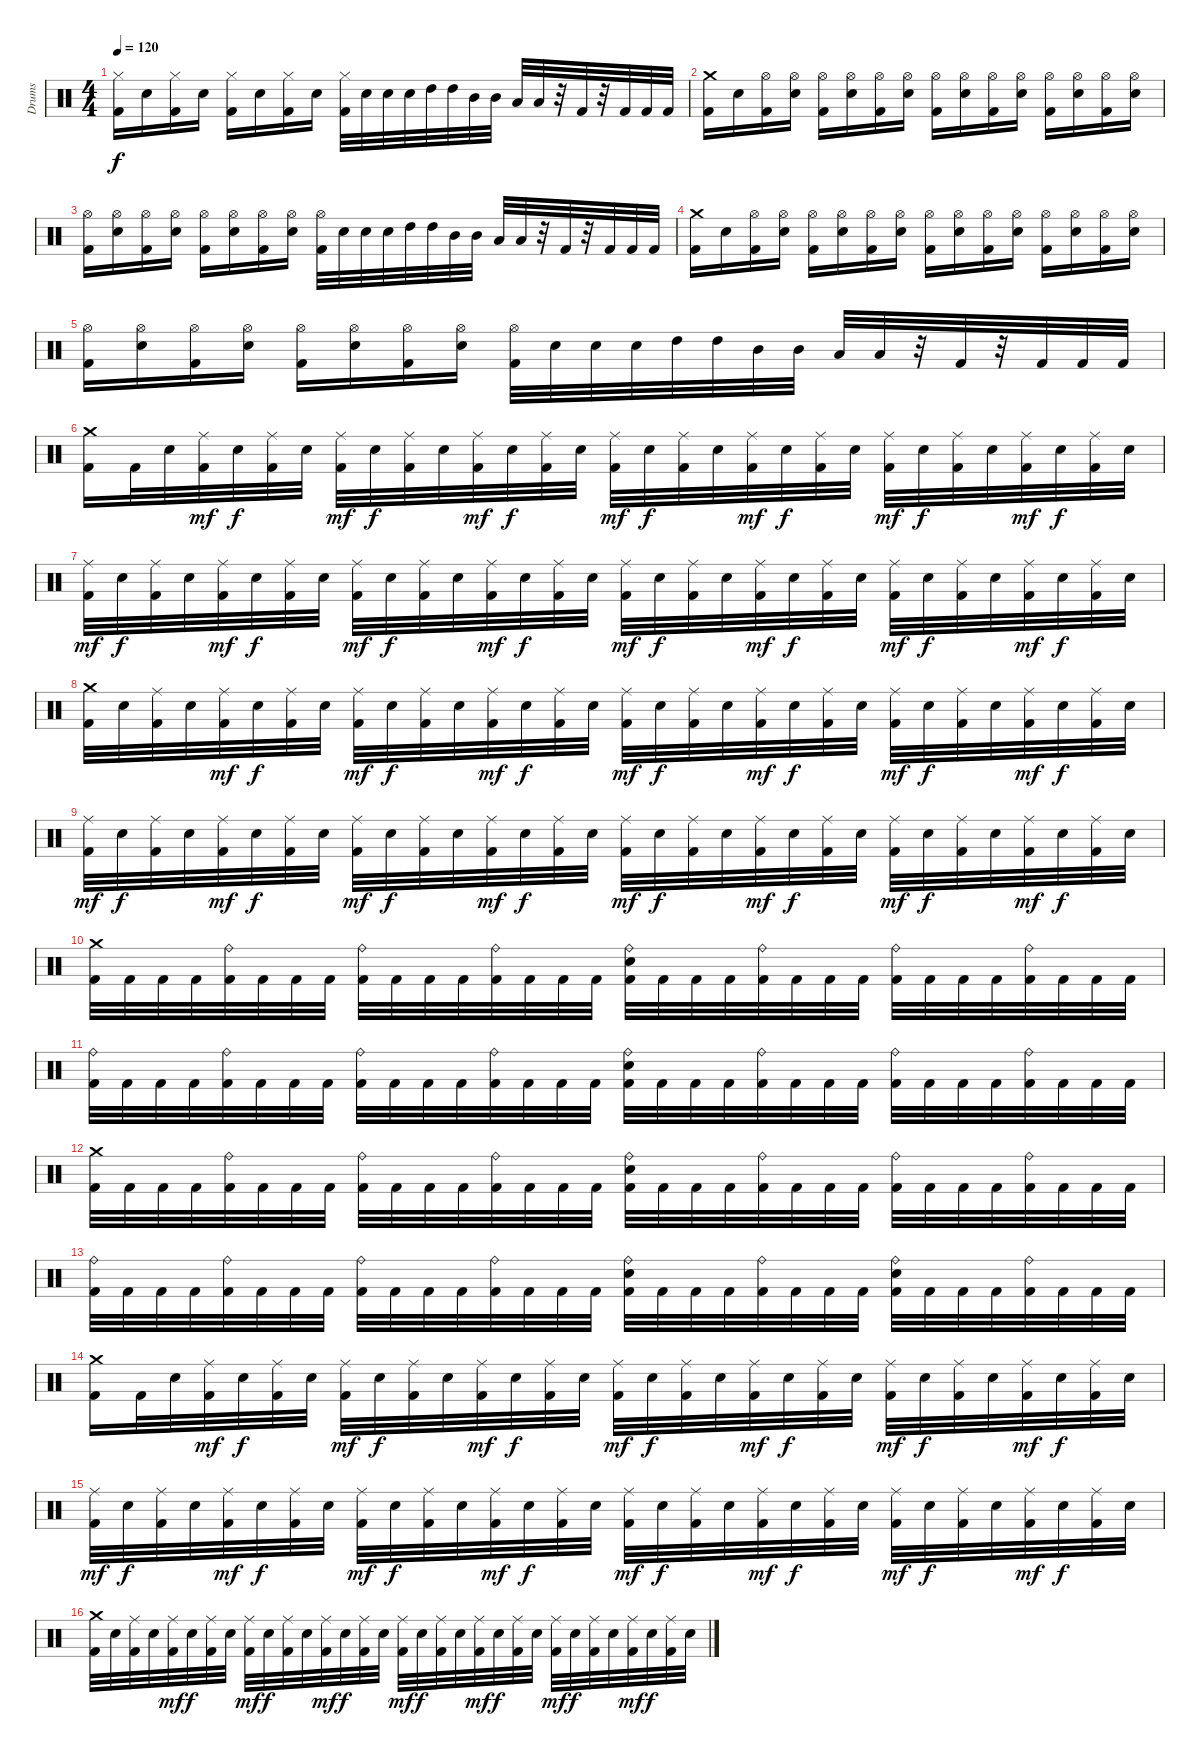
\track ("Drums" "Drums") {instrument percussion}
\staff {score}
\articulation defaults
\ts (4 4)
\tempo 120
\clef neutral
\ks c
("Hi-Hat (closed)" "Kick (hit) 2").16{dy f} "Electric Snare (hit)".16 ("Hi-Hat (closed)" "Kick (hit) 2").16 "Electric Snare (hit)".16 ("Hi-Hat (closed)" "Kick (hit) 2").16 "Electric Snare (hit)".16 ("Hi-Hat (closed)" "Kick (hit) 2").16 "Electric Snare (hit)".16 ("Hi-Hat (closed)" "Kick (hit) 2").32 "Electric Snare (hit)".32 "Electric Snare (hit)".32 "Electric Snare (hit)".32 "High Tom (hit)".32 "High Tom (hit)".32 "Mid Tom (hit)".32 "Mid Tom (hit)".32 "Low Tom (hit)".32 "Low Tom (hit)".32 r.32 "Kick (hit) 2".32 r.32 "Kick (hit) 2".32 "Kick (hit) 2".32 "Kick (hit) 2".32 |
("Crash medium (hit)" "Kick (hit) 2").16 "Electric Snare (hit)".16 ("Hi-Hat (open)" "Kick (hit) 2").16 ("Hi-Hat (open)" "Electric Snare (hit)").16 ("Hi-Hat (open)" "Kick (hit) 2").16 ("Hi-Hat (open)" "Electric Snare (hit)").16 ("Hi-Hat (open)" "Kick (hit) 2").16 ("Hi-Hat (open)" "Electric Snare (hit)").16 ("Hi-Hat (open)" "Kick (hit) 2").16 ("Hi-Hat (open)" "Electric Snare (hit)").16 ("Hi-Hat (open)" "Kick (hit) 2").16 ("Hi-Hat (open)" "Electric Snare (hit)").16 ("Hi-Hat (open)" "Kick (hit) 2").16 ("Hi-Hat (open)" "Electric Snare (hit)").16 ("Hi-Hat (open)" "Kick (hit) 2").16 ("Hi-Hat (open)" "Electric Snare (hit)").16 |
("Hi-Hat (open)" "Kick (hit) 2").16 ("Hi-Hat (open)" "Electric Snare (hit)").16 ("Hi-Hat (open)" "Kick (hit) 2").16 ("Hi-Hat (open)" "Electric Snare (hit)").16 ("Hi-Hat (open)" "Kick (hit) 2").16 ("Hi-Hat (open)" "Electric Snare (hit)").16 ("Hi-Hat (open)" "Kick (hit) 2").16 ("Hi-Hat (open)" "Electric Snare (hit)").16 ("Hi-Hat (open)" "Kick (hit) 2").32 "Electric Snare (hit)".32 "Electric Snare (hit)".32 "Electric Snare (hit)".32 "High Tom (hit)".32 "High Tom (hit)".32 "Mid Tom (hit)".32 "Mid Tom (hit)".32 "Low Tom (hit)".32 "Low Tom (hit)".32 r.32 "Kick (hit) 2".32 r.32 "Kick (hit) 2".32 "Kick (hit) 2".32 "Kick (hit) 2".32 |
("Crash medium (hit)" "Kick (hit) 2").16 "Electric Snare (hit)".16 ("Hi-Hat (open)" "Kick (hit) 2").16 ("Hi-Hat (open)" "Electric Snare (hit)").16 ("Hi-Hat (open)" "Kick (hit) 2").16 ("Hi-Hat (open)" "Electric Snare (hit)").16 ("Hi-Hat (open)" "Kick (hit) 2").16 ("Hi-Hat (open)" "Electric Snare (hit)").16 ("Hi-Hat (open)" "Kick (hit) 2").16 ("Hi-Hat (open)" "Electric Snare (hit)").16 ("Hi-Hat (open)" "Kick (hit) 2").16 ("Hi-Hat (open)" "Electric Snare (hit)").16 ("Hi-Hat (open)" "Kick (hit) 2").16 ("Hi-Hat (open)" "Electric Snare (hit)").16 ("Hi-Hat (open)" "Kick (hit) 2").16 ("Hi-Hat (open)" "Electric Snare (hit)").16 |
("Hi-Hat (open)" "Kick (hit) 2").16 ("Hi-Hat (open)" "Electric Snare (hit)").16 ("Hi-Hat (open)" "Kick (hit) 2").16 ("Hi-Hat (open)" "Electric Snare (hit)").16 ("Hi-Hat (open)" "Kick (hit) 2").16 ("Hi-Hat (open)" "Electric Snare (hit)").16 ("Hi-Hat (open)" "Kick (hit) 2").16 ("Hi-Hat (open)" "Electric Snare (hit)").16 ("Hi-Hat (open)" "Kick (hit) 2").32 "Electric Snare (hit)".32 "Electric Snare (hit)".32 "Electric Snare (hit)".32 "High Tom (hit)".32 "High Tom (hit)".32 "Mid Tom (hit)".32 "Mid Tom (hit)".32 "Low Tom (hit)".32 "Low Tom (hit)".32 r.32 "Kick (hit) 2".32 r.32 "Kick (hit) 2".32 "Kick (hit) 2".32 "Kick (hit) 2".32 |
("Kick (hit) 2" "Crash medium (hit)").16 "Kick (hit) 2".32 "Electric Snare (hit)".32 ("Kick (hit) 2" "Ride (middle)").32{dy mf} "Electric Snare (hit)".32{dy f} ("Kick (hit) 2" "Ride (middle)").32 "Electric Snare (hit)".32 ("Kick (hit) 2" "Ride (middle)").32{dy mf} "Electric Snare (hit)".32{dy f} ("Kick (hit) 2" "Ride (middle)").32 "Electric Snare (hit)".32 ("Kick (hit) 2" "Ride (middle)").32{dy mf} "Electric Snare (hit)".32{dy f} ("Kick (hit) 2" "Ride (middle)").32 "Electric Snare (hit)".32 ("Kick (hit) 2" "Ride (middle)").32{dy mf} "Electric Snare (hit)".32{dy f} ("Kick (hit) 2" "Ride (middle)").32 "Electric Snare (hit)".32 ("Kick (hit) 2" "Ride (middle)").32{dy mf} "Electric Snare (hit)".32{dy f} ("Kick (hit) 2" "Ride (middle)").32 "Electric Snare (hit)".32 ("Kick (hit) 2" "Ride (middle)").32{dy mf} "Electric Snare (hit)".32{dy f} ("Kick (hit) 2" "Ride (middle)").32 "Electric Snare (hit)".32 ("Kick (hit) 2" "Ride (middle)").32{dy mf} "Electric Snare (hit)".32{dy f} ("Kick (hit) 2" "Ride (middle)").32 "Electric Snare (hit)".32 |
("Kick (hit) 2" "Ride (middle)").32{dy mf} "Electric Snare (hit)".32{dy f} ("Kick (hit) 2" "Ride (middle)").32 "Electric Snare (hit)".32 ("Kick (hit) 2" "Ride (middle)").32{dy mf} "Electric Snare (hit)".32{dy f} ("Kick (hit) 2" "Ride (middle)").32 "Electric Snare (hit)".32 ("Kick (hit) 2" "Ride (middle)").32{dy mf} "Electric Snare (hit)".32{dy f} ("Kick (hit) 2" "Ride (middle)").32 "Electric Snare (hit)".32 ("Kick (hit) 2" "Ride (middle)").32{dy mf} "Electric Snare (hit)".32{dy f} ("Kick (hit) 2" "Ride (middle)").32 "Electric Snare (hit)".32 ("Kick (hit) 2" "Ride (middle)").32{dy mf} "Electric Snare (hit)".32{dy f} ("Kick (hit) 2" "Ride (middle)").32 "Electric Snare (hit)".32 ("Kick (hit) 2" "Ride (middle)").32{dy mf} "Electric Snare (hit)".32{dy f} ("Kick (hit) 2" "Ride (middle)").32 "Electric Snare (hit)".32 ("Kick (hit) 2" "Ride (middle)").32{dy mf} "Electric Snare (hit)".32{dy f} ("Kick (hit) 2" "Ride (middle)").32 "Electric Snare (hit)".32 ("Kick (hit) 2" "Ride (middle)").32{dy mf} "Electric Snare (hit)".32{dy f} ("Kick (hit) 2" "Ride (middle)").32 "Electric Snare (hit)".32 |
("Kick (hit) 2" "Crash medium (hit)").32 "Electric Snare (hit)".32 ("Kick (hit) 2" "Ride (middle)").32 "Electric Snare (hit)".32 ("Kick (hit) 2" "Ride (middle)").32{dy mf} "Electric Snare (hit)".32{dy f} ("Kick (hit) 2" "Ride (middle)").32 "Electric Snare (hit)".32 ("Kick (hit) 2" "Ride (middle)").32{dy mf} "Electric Snare (hit)".32{dy f} ("Kick (hit) 2" "Ride (middle)").32 "Electric Snare (hit)".32 ("Kick (hit) 2" "Ride (middle)").32{dy mf} "Electric Snare (hit)".32{dy f} ("Kick (hit) 2" "Ride (middle)").32 "Electric Snare (hit)".32 ("Kick (hit) 2" "Ride (middle)").32{dy mf} "Electric Snare (hit)".32{dy f} ("Kick (hit) 2" "Ride (middle)").32 "Electric Snare (hit)".32 ("Kick (hit) 2" "Ride (middle)").32{dy mf} "Electric Snare (hit)".32{dy f} ("Kick (hit) 2" "Ride (middle)").32 "Electric Snare (hit)".32 ("Kick (hit) 2" "Ride (middle)").32{dy mf} "Electric Snare (hit)".32{dy f} ("Kick (hit) 2" "Ride (middle)").32 "Electric Snare (hit)".32 ("Kick (hit) 2" "Ride (middle)").32{dy mf} "Electric Snare (hit)".32{dy f} ("Kick (hit) 2" "Ride (middle)").32 "Electric Snare (hit)".32 |
("Kick (hit) 2" "Ride (middle)").32{dy mf} "Electric Snare (hit)".32{dy f} ("Kick (hit) 2" "Ride (middle)").32 "Electric Snare (hit)".32 ("Kick (hit) 2" "Ride (middle)").32{dy mf} "Electric Snare (hit)".32{dy f} ("Kick (hit) 2" "Ride (middle)").32 "Electric Snare (hit)".32 ("Kick (hit) 2" "Ride (middle)").32{dy mf} "Electric Snare (hit)".32{dy f} ("Kick (hit) 2" "Ride (middle)").32 "Electric Snare (hit)".32 ("Kick (hit) 2" "Ride (middle)").32{dy mf} "Electric Snare (hit)".32{dy f} ("Kick (hit) 2" "Ride (middle)").32 "Electric Snare (hit)".32 ("Kick (hit) 2" "Ride (middle)").32{dy mf} "Electric Snare (hit)".32{dy f} ("Kick (hit) 2" "Ride (middle)").32 "Electric Snare (hit)".32 ("Kick (hit) 2" "Ride (middle)").32{dy mf} "Electric Snare (hit)".32{dy f} ("Kick (hit) 2" "Ride (middle)").32 "Electric Snare (hit)".32 ("Kick (hit) 2" "Ride (middle)").32{dy mf} "Electric Snare (hit)".32{dy f} ("Kick (hit) 2" "Ride (middle)").32 "Electric Snare (hit)".32 ("Kick (hit) 2" "Ride (middle)").32{dy mf} "Electric Snare (hit)".32{dy f} ("Kick (hit) 2" "Ride (middle)").32 "Electric Snare (hit)".32 |
("Crash medium (hit)" "Kick (hit) 2").32 "Kick (hit) 2".32 "Kick (hit) 2".32 "Kick (hit) 2".32 ("Ride (bell)" "Kick (hit) 2").32 "Kick (hit) 2".32 "Kick (hit) 2".32 "Kick (hit) 2".32 ("Ride (bell)" "Kick (hit) 2").32 "Kick (hit) 2".32 "Kick (hit) 2".32 "Kick (hit) 2".32 ("Ride (bell)" "Kick (hit) 2").32 "Kick (hit) 2".32 "Kick (hit) 2".32 "Kick (hit) 2".32 ("Ride (bell)" "Electric Snare (hit)" "Kick (hit) 2").32 "Kick (hit) 2".32 "Kick (hit) 2".32 "Kick (hit) 2".32 ("Ride (bell)" "Kick (hit) 2").32 "Kick (hit) 2".32 "Kick (hit) 2".32 "Kick (hit) 2".32 ("Ride (bell)" "Kick (hit) 2").32 "Kick (hit) 2".32 "Kick (hit) 2".32 "Kick (hit) 2".32 ("Ride (bell)" "Kick (hit) 2").32 "Kick (hit) 2".32 "Kick (hit) 2".32 "Kick (hit) 2".32 |
("Ride (bell)" "Kick (hit) 2").32 "Kick (hit) 2".32 "Kick (hit) 2".32 "Kick (hit) 2".32 ("Ride (bell)" "Kick (hit) 2").32 "Kick (hit) 2".32 "Kick (hit) 2".32 "Kick (hit) 2".32 ("Ride (bell)" "Kick (hit) 2").32 "Kick (hit) 2".32 "Kick (hit) 2".32 "Kick (hit) 2".32 ("Ride (bell)" "Kick (hit) 2").32 "Kick (hit) 2".32 "Kick (hit) 2".32 "Kick (hit) 2".32 ("Ride (bell)" "Electric Snare (hit)" "Kick (hit) 2").32 "Kick (hit) 2".32 "Kick (hit) 2".32 "Kick (hit) 2".32 ("Ride (bell)" "Kick (hit) 2").32 "Kick (hit) 2".32 "Kick (hit) 2".32 "Kick (hit) 2".32 ("Ride (bell)" "Kick (hit) 2").32 "Kick (hit) 2".32 "Kick (hit) 2".32 "Kick (hit) 2".32 ("Ride (bell)" "Kick (hit) 2").32 "Kick (hit) 2".32 "Kick (hit) 2".32 "Kick (hit) 2".32 |
("Crash medium (hit)" "Kick (hit) 2").32 "Kick (hit) 2".32 "Kick (hit) 2".32 "Kick (hit) 2".32 ("Ride (bell)" "Kick (hit) 2").32 "Kick (hit) 2".32 "Kick (hit) 2".32 "Kick (hit) 2".32 ("Ride (bell)" "Kick (hit) 2").32 "Kick (hit) 2".32 "Kick (hit) 2".32 "Kick (hit) 2".32 ("Ride (bell)" "Kick (hit) 2").32 "Kick (hit) 2".32 "Kick (hit) 2".32 "Kick (hit) 2".32 ("Ride (bell)" "Electric Snare (hit)" "Kick (hit) 2").32 "Kick (hit) 2".32 "Kick (hit) 2".32 "Kick (hit) 2".32 ("Ride (bell)" "Kick (hit) 2").32 "Kick (hit) 2".32 "Kick (hit) 2".32 "Kick (hit) 2".32 ("Ride (bell)" "Kick (hit) 2").32 "Kick (hit) 2".32 "Kick (hit) 2".32 "Kick (hit) 2".32 ("Ride (bell)" "Kick (hit) 2").32 "Kick (hit) 2".32 "Kick (hit) 2".32 "Kick (hit) 2".32 |
("Ride (bell)" "Kick (hit) 2").32 "Kick (hit) 2".32 "Kick (hit) 2".32 "Kick (hit) 2".32 ("Ride (bell)" "Kick (hit) 2").32 "Kick (hit) 2".32 "Kick (hit) 2".32 "Kick (hit) 2".32 ("Ride (bell)" "Kick (hit) 2").32 "Kick (hit) 2".32 "Kick (hit) 2".32 "Kick (hit) 2".32 ("Ride (bell)" "Kick (hit) 2").32 "Kick (hit) 2".32 "Kick (hit) 2".32 "Kick (hit) 2".32 ("Ride (bell)" "Electric Snare (hit)" "Kick (hit) 2").32 "Kick (hit) 2".32 "Kick (hit) 2".32 "Kick (hit) 2".32 ("Ride (bell)" "Kick (hit) 2").32 "Kick (hit) 2".32 "Kick (hit) 2".32 "Kick (hit) 2".32 ("Ride (bell)" "Electric Snare (hit)" "Kick (hit) 2").32 "Kick (hit) 2".32 "Kick (hit) 2".32 "Kick (hit) 2".32 ("Ride (bell)" "Kick (hit) 2").32 "Kick (hit) 2".32 "Kick (hit) 2".32 "Kick (hit) 2".32 |
("Kick (hit) 2" "Crash medium (hit)").16 "Kick (hit) 2".32 "Electric Snare (hit)".32 ("Kick (hit) 2" "Ride (middle)").32{dy mf} "Electric Snare (hit)".32{dy f} ("Kick (hit) 2" "Ride (middle)").32 "Electric Snare (hit)".32 ("Kick (hit) 2" "Ride (middle)").32{dy mf} "Electric Snare (hit)".32{dy f} ("Kick (hit) 2" "Ride (middle)").32 "Electric Snare (hit)".32 ("Kick (hit) 2" "Ride (middle)").32{dy mf} "Electric Snare (hit)".32{dy f} ("Kick (hit) 2" "Ride (middle)").32 "Electric Snare (hit)".32 ("Kick (hit) 2" "Ride (middle)").32{dy mf} "Electric Snare (hit)".32{dy f} ("Kick (hit) 2" "Ride (middle)").32 "Electric Snare (hit)".32 ("Kick (hit) 2" "Ride (middle)").32{dy mf} "Electric Snare (hit)".32{dy f} ("Kick (hit) 2" "Ride (middle)").32 "Electric Snare (hit)".32 ("Kick (hit) 2" "Ride (middle)").32{dy mf} "Electric Snare (hit)".32{dy f} ("Kick (hit) 2" "Ride (middle)").32 "Electric Snare (hit)".32 ("Kick (hit) 2" "Ride (middle)").32{dy mf} "Electric Snare (hit)".32{dy f} ("Kick (hit) 2" "Ride (middle)").32 "Electric Snare (hit)".32 |
("Kick (hit) 2" "Ride (middle)").32{dy mf} "Electric Snare (hit)".32{dy f} ("Kick (hit) 2" "Ride (middle)").32 "Electric Snare (hit)".32 ("Kick (hit) 2" "Ride (middle)").32{dy mf} "Electric Snare (hit)".32{dy f} ("Kick (hit) 2" "Ride (middle)").32 "Electric Snare (hit)".32 ("Kick (hit) 2" "Ride (middle)").32{dy mf} "Electric Snare (hit)".32{dy f} ("Kick (hit) 2" "Ride (middle)").32 "Electric Snare (hit)".32 ("Kick (hit) 2" "Ride (middle)").32{dy mf} "Electric Snare (hit)".32{dy f} ("Kick (hit) 2" "Ride (middle)").32 "Electric Snare (hit)".32 ("Kick (hit) 2" "Ride (middle)").32{dy mf} "Electric Snare (hit)".32{dy f} ("Kick (hit) 2" "Ride (middle)").32 "Electric Snare (hit)".32 ("Kick (hit) 2" "Ride (middle)").32{dy mf} "Electric Snare (hit)".32{dy f} ("Kick (hit) 2" "Ride (middle)").32 "Electric Snare (hit)".32 ("Kick (hit) 2" "Ride (middle)").32{dy mf} "Electric Snare (hit)".32{dy f} ("Kick (hit) 2" "Ride (middle)").32 "Electric Snare (hit)".32 ("Kick (hit) 2" "Ride (middle)").32{dy mf} "Electric Snare (hit)".32{dy f} ("Kick (hit) 2" "Ride (middle)").32 "Electric Snare (hit)".32 |
("Kick (hit) 2" "Crash medium (hit)").32 "Electric Snare (hit)".32 ("Kick (hit) 2" "Ride (middle)").32 "Electric Snare (hit)".32 ("Kick (hit) 2" "Ride (middle)").32{dy mf} "Electric Snare (hit)".32{dy f} ("Kick (hit) 2" "Ride (middle)").32 "Electric Snare (hit)".32 ("Kick (hit) 2" "Ride (middle)").32{dy mf} "Electric Snare (hit)".32{dy f} ("Kick (hit) 2" "Ride (middle)").32 "Electric Snare (hit)".32 ("Kick (hit) 2" "Ride (middle)").32{dy mf} "Electric Snare (hit)".32{dy f} ("Kick (hit) 2" "Ride (middle)").32 "Electric Snare (hit)".32 ("Kick (hit) 2" "Ride (middle)").32{dy mf} "Electric Snare (hit)".32{dy f} ("Kick (hit) 2" "Ride (middle)").32 "Electric Snare (hit)".32 ("Kick (hit) 2" "Ride (middle)").32{dy mf} "Electric Snare (hit)".32{dy f} ("Kick (hit) 2" "Ride (middle)").32 "Electric Snare (hit)".32 ("Kick (hit) 2" "Ride (middle)").32{dy mf} "Electric Snare (hit)".32{dy f} ("Kick (hit) 2" "Ride (middle)").32 "Electric Snare (hit)".32 ("Kick (hit) 2" "Ride (middle)").32{dy mf} "Electric Snare (hit)".32{dy f} ("Kick (hit) 2" "Ride (middle)").32 "Electric Snare (hit)".32
